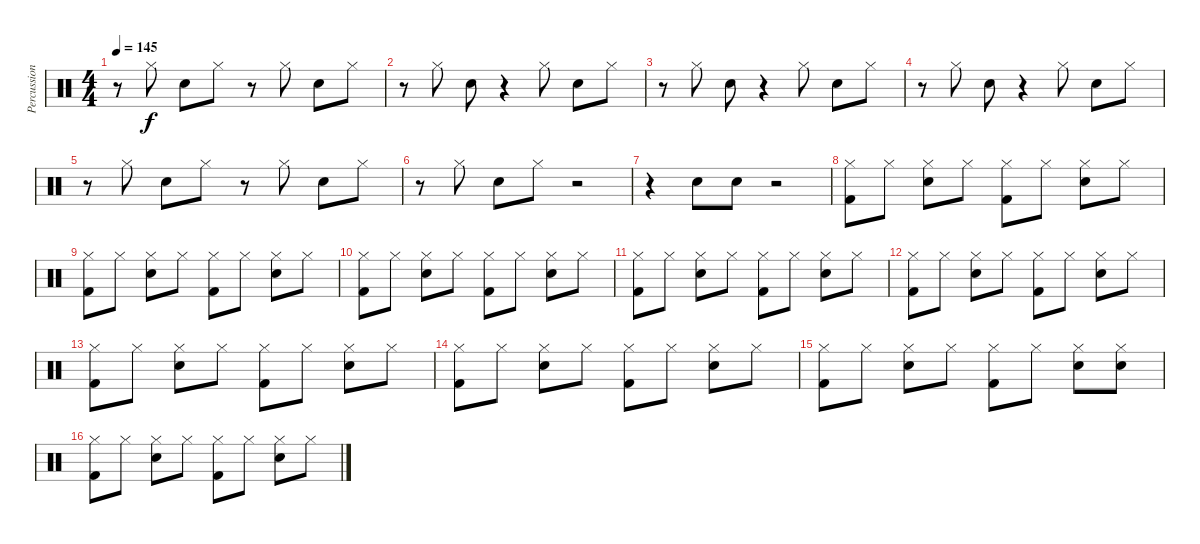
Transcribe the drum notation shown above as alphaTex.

\track ("Percussion (Other)" "Percussion") {instrument percussion}
\staff {score}
\articulation defaults
\ts (4 4)
\tempo 145
\clef neutral
\ks c
r.8{dy f} "Hi-Hat (closed)".8 "Snare (hit) 2".8 "Hi-Hat (closed)".8 r.8 "Hi-Hat (closed)".8 "Snare (hit) 2".8 "Hi-Hat (closed)".8 |
r.8 "Hi-Hat (closed)".8 "Snare (hit) 2".8 r.4 "Hi-Hat (closed)".8 "Snare (hit) 2".8 "Hi-Hat (closed)".8 |
r.8 "Hi-Hat (closed)".8 "Snare (hit) 2".8 r.4 "Hi-Hat (closed)".8 "Snare (hit) 2".8 "Hi-Hat (closed)".8 |
r.8 "Hi-Hat (closed)".8 "Snare (hit) 2".8 r.4 "Hi-Hat (closed)".8 "Snare (hit) 2".8 "Hi-Hat (closed)".8 |
r.8 "Hi-Hat (closed)".8 "Snare (hit) 2".8 "Hi-Hat (closed)".8 r.8 "Hi-Hat (closed)".8 "Snare (hit) 2".8 "Hi-Hat (closed)".8 |
r.8 "Hi-Hat (closed)".8 "Snare (hit) 2".8 "Hi-Hat (closed)".8 r.2 |
r.4 "Snare (hit) 2".8 "Snare (hit) 2".8 r.2 |
("Hi-Hat (closed)" "Kick (hit) 2").8 "Hi-Hat (closed)".8 ("Hi-Hat (closed)" "Snare (hit) 2").8 "Hi-Hat (closed)".8 ("Hi-Hat (closed)" "Kick (hit) 2").8 "Hi-Hat (closed)".8 ("Hi-Hat (closed)" "Snare (hit) 2").8 "Hi-Hat (closed)".8 |
("Hi-Hat (closed)" "Kick (hit) 2").8 "Hi-Hat (closed)".8 ("Hi-Hat (closed)" "Snare (hit) 2").8 "Hi-Hat (closed)".8 ("Hi-Hat (closed)" "Kick (hit) 2").8 "Hi-Hat (closed)".8 ("Hi-Hat (closed)" "Snare (hit) 2").8 "Hi-Hat (closed)".8 |
("Hi-Hat (closed)" "Kick (hit) 2").8 "Hi-Hat (closed)".8 ("Hi-Hat (closed)" "Snare (hit) 2").8 "Hi-Hat (closed)".8 ("Hi-Hat (closed)" "Kick (hit) 2").8 "Hi-Hat (closed)".8 ("Hi-Hat (closed)" "Snare (hit) 2").8 "Hi-Hat (closed)".8 |
("Hi-Hat (closed)" "Kick (hit) 2").8 "Hi-Hat (closed)".8 ("Hi-Hat (closed)" "Snare (hit) 2").8 "Hi-Hat (closed)".8 ("Hi-Hat (closed)" "Kick (hit) 2").8 "Hi-Hat (closed)".8 ("Hi-Hat (closed)" "Snare (hit) 2").8 "Hi-Hat (closed)".8 |
("Hi-Hat (closed)" "Kick (hit) 2").8 "Hi-Hat (closed)".8 ("Hi-Hat (closed)" "Snare (hit) 2").8 "Hi-Hat (closed)".8 ("Hi-Hat (closed)" "Kick (hit) 2").8 "Hi-Hat (closed)".8 ("Hi-Hat (closed)" "Snare (hit) 2").8 "Hi-Hat (closed)".8 |
("Hi-Hat (closed)" "Kick (hit) 2").8 "Hi-Hat (closed)".8 ("Hi-Hat (closed)" "Snare (hit) 2").8 "Hi-Hat (closed)".8 ("Hi-Hat (closed)" "Kick (hit) 2").8 "Hi-Hat (closed)".8 ("Hi-Hat (closed)" "Snare (hit) 2").8 "Hi-Hat (closed)".8 |
("Hi-Hat (closed)" "Kick (hit) 2").8 "Hi-Hat (closed)".8 ("Hi-Hat (closed)" "Snare (hit) 2").8 "Hi-Hat (closed)".8 ("Hi-Hat (closed)" "Kick (hit) 2").8 "Hi-Hat (closed)".8 ("Hi-Hat (closed)" "Snare (hit) 2").8 "Hi-Hat (closed)".8 |
("Hi-Hat (closed)" "Kick (hit) 2").8 "Hi-Hat (closed)".8 ("Hi-Hat (closed)" "Snare (hit) 2").8 "Hi-Hat (closed)".8 ("Hi-Hat (closed)" "Kick (hit) 2").8 "Hi-Hat (closed)".8 ("Hi-Hat (closed)" "Snare (hit) 2").8 ("Hi-Hat (closed)" "Snare (hit) 2").8 |
("Hi-Hat (closed)" "Kick (hit) 2").8 "Hi-Hat (closed)".8 ("Hi-Hat (closed)" "Snare (hit) 2").8 "Hi-Hat (closed)".8 ("Hi-Hat (closed)" "Kick (hit) 2").8 "Hi-Hat (closed)".8 ("Hi-Hat (closed)" "Snare (hit) 2").8 "Hi-Hat (closed)".8
